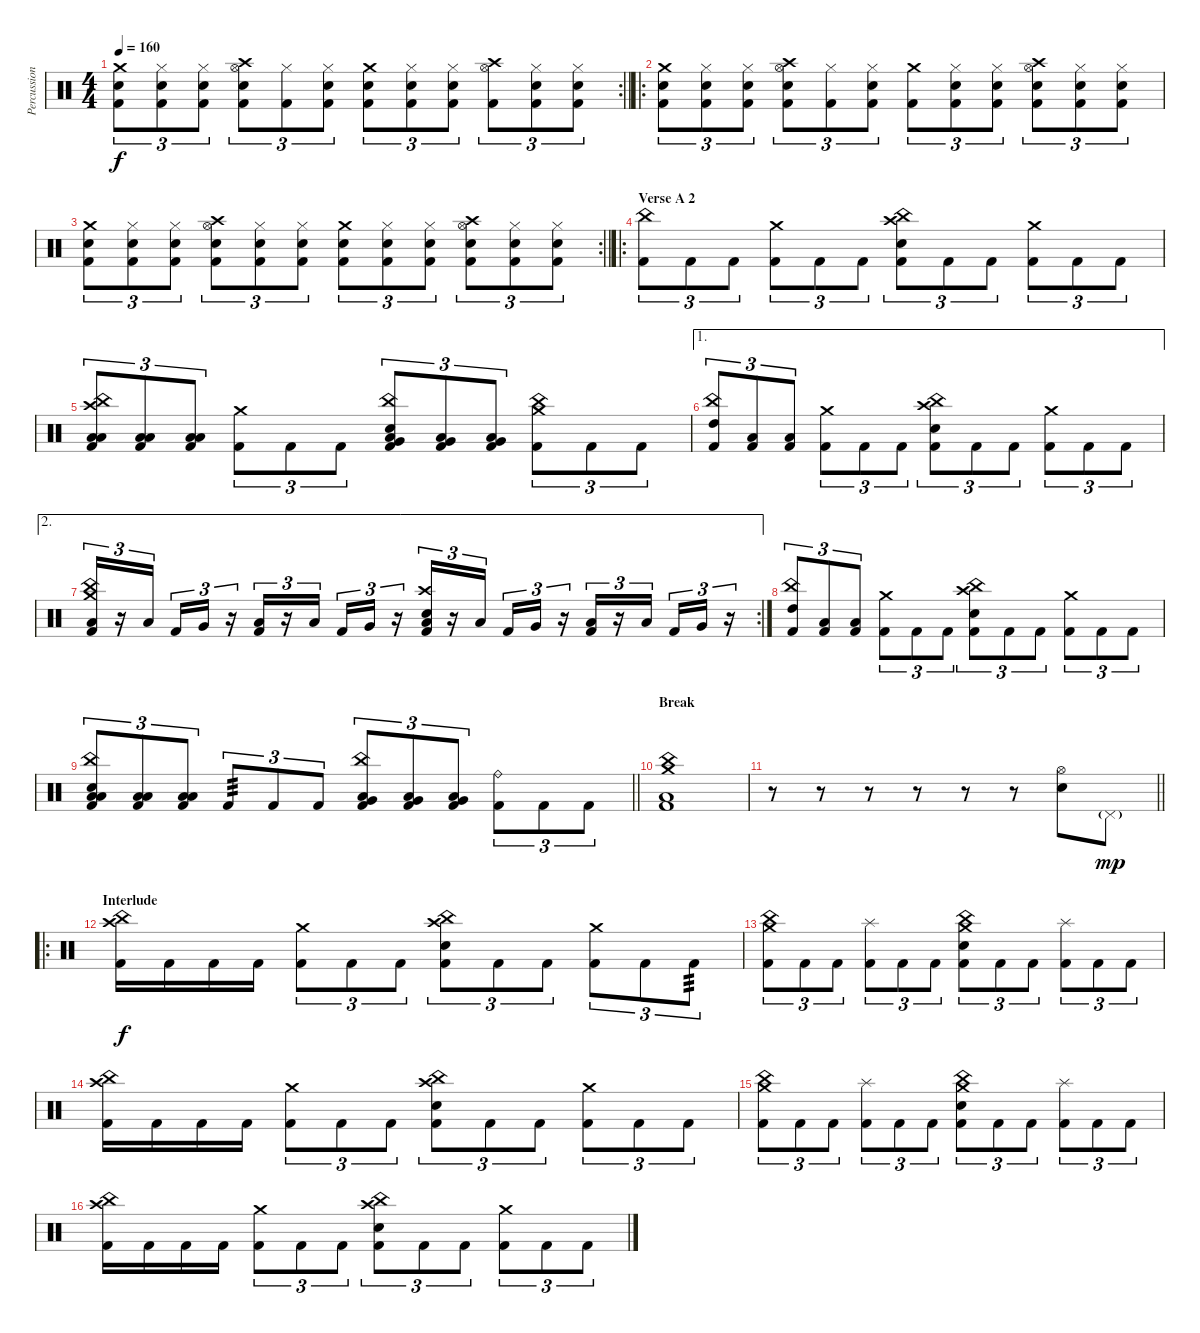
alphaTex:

\track ("Percussion" "Percussion") {instrument percussion}
\staff {score}
\articulation defaults
\rc 2
\ts (4 4)
\tempo 160
\clef neutral
\barLineRight lightlight
\ks c
("Kick (hit) 2" "Crash medium (hit)" "Electric Snare (hit)").8{tu (3 2) dy f} ("Kick (hit) 2" "Hi-Hat (closed)" "Electric Snare (hit)").8{tu (3 2)} ("Kick (hit) 2" "Hi-Hat (closed)" "Electric Snare (hit)").8{tu (3 2)} ("Kick (hit) 2" "Crash high (hit)" "Hi-Hat (open)" "Electric Snare (hit)").8{tu (3 2)} ("Kick (hit) 2" "Hi-Hat (closed)").8{tu (3 2)} ("Kick (hit) 2" "Hi-Hat (closed)" "Electric Snare (hit)").8{tu (3 2)} ("Kick (hit) 2" "Crash medium (hit)" "Electric Snare (hit)").8{tu (3 2)} ("Kick (hit) 2" "Hi-Hat (closed)" "Electric Snare (hit)").8{tu (3 2)} ("Kick (hit) 2" "Hi-Hat (closed)" "Electric Snare (hit)").8{tu (3 2)} ("Kick (hit) 2" "Crash high (hit)" "Hi-Hat (open)").8{tu (3 2)} ("Kick (hit) 2" "Hi-Hat (closed)" "Electric Snare (hit)").8{tu (3 2)} ("Kick (hit) 2" "Hi-Hat (closed)" "Electric Snare (hit)").8{tu (3 2)} |
\ro
("Kick (hit) 2" "Crash medium (hit)" "Electric Snare (hit)").8{tu (3 2)} ("Kick (hit) 2" "Hi-Hat (closed)" "Electric Snare (hit)").8{tu (3 2)} ("Kick (hit) 2" "Hi-Hat (closed)" "Electric Snare (hit)").8{tu (3 2)} ("Kick (hit) 2" "Crash high (hit)" "Hi-Hat (open)" "Electric Snare (hit)").8{tu (3 2)} ("Kick (hit) 2" "Hi-Hat (closed)").8{tu (3 2)} ("Kick (hit) 2" "Hi-Hat (closed)" "Electric Snare (hit)").8{tu (3 2)} ("Kick (hit) 2" "Crash medium (hit)").8{tu (3 2)} ("Kick (hit) 2" "Hi-Hat (closed)" "Electric Snare (hit)").8{tu (3 2)} ("Kick (hit) 2" "Hi-Hat (closed)" "Electric Snare (hit)").8{tu (3 2)} ("Kick (hit) 2" "Crash high (hit)" "Hi-Hat (open)" "Electric Snare (hit)").8{tu (3 2)} ("Kick (hit) 2" "Hi-Hat (closed)" "Electric Snare (hit)").8{tu (3 2)} ("Kick (hit) 2" "Hi-Hat (closed)" "Electric Snare (hit)").8{tu (3 2)} |
\rc 2
\barLineRight lightlight
("Kick (hit) 2" "Crash medium (hit)" "Electric Snare (hit)").8{tu (3 2)} ("Kick (hit) 2" "Hi-Hat (closed)" "Electric Snare (hit)").8{tu (3 2)} ("Kick (hit) 2" "Hi-Hat (closed)" "Electric Snare (hit)").8{tu (3 2)} ("Kick (hit) 2" "Crash high (hit)" "Hi-Hat (open)" "Electric Snare (hit)").8{tu (3 2)} ("Kick (hit) 2" "Hi-Hat (closed)" "Electric Snare (hit)").8{tu (3 2)} ("Kick (hit) 2" "Hi-Hat (closed)" "Electric Snare (hit)").8{tu (3 2)} ("Kick (hit) 2" "Crash medium (hit)" "Electric Snare (hit)").8{tu (3 2)} ("Kick (hit) 2" "Hi-Hat (closed)" "Electric Snare (hit)").8{tu (3 2)} ("Kick (hit) 2" "Hi-Hat (closed)" "Electric Snare (hit)").8{tu (3 2)} ("Kick (hit) 2" "Crash high (hit)" "Hi-Hat (open)" "Electric Snare (hit)").8{tu (3 2)} ("Kick (hit) 2" "Hi-Hat (closed)" "Electric Snare (hit)").8{tu (3 2)} ("Kick (hit) 2" "Hi-Hat (closed)" "Electric Snare (hit)").8{tu (3 2)} |
\ro
\section ("" "Verse A 2")
("China (hit)" "Kick (hit) 2").8{tu (3 2)} "Kick (hit) 2".8{tu (3 2)} "Kick (hit) 2".8{tu (3 2)} ("Crash medium (hit)" "Kick (hit) 2").8{tu (3 2)} "Kick (hit) 2".8{tu (3 2)} "Kick (hit) 2".8{tu (3 2)} ("China (hit)" "Crash high (hit)" "Electric Snare (hit)" "Kick (hit) 2").8{tu (3 2)} "Kick (hit) 2".8{tu (3 2)} "Kick (hit) 2".8{tu (3 2)} ("Crash medium (hit)" "Kick (hit) 2").8{tu (3 2)} "Kick (hit) 2".8{tu (3 2)} "Kick (hit) 2".8{tu (3 2)} |
("China (hit)" "Crash high (hit)" "Low Tom (hit)" "Low Floor Tom (hit)" "Kick (hit) 2").8{tu (3 2)} ("Low Tom (hit)" "Low Floor Tom (hit)" "Kick (hit) 2").8{tu (3 2)} ("Low Tom (hit)" "Low Floor Tom (hit)" "Kick (hit) 2").8{tu (3 2)} ("Crash medium (hit)" "Kick (hit) 2").8{tu (3 2)} "Kick (hit) 2".8{tu (3 2)} "Kick (hit) 2".8{tu (3 2)} ("Electric Snare (hit)" "China (hit)" "Very Low Tom (hit)" "Low Floor Tom (hit)" "Kick (hit) 2").8{tu (3 2)} ("Very Low Tom (hit)" "Low Floor Tom (hit)" "Kick (hit) 2").8{tu (3 2)} ("Very Low Tom (hit)" "Low Floor Tom (hit)" "Kick (hit) 2").8{tu (3 2)} ("Crash medium (hit)" "China (hit)" "Kick (hit) 2").8{tu (3 2)} "Kick (hit) 2".8{tu (3 2)} "Kick (hit) 2".8{tu (3 2)} |
\ae 1
("China (hit)" "High Tom (hit)" "Kick (hit) 2").8{tu (3 2)} ("Low Tom (hit)" "Kick (hit) 2").8{tu (3 2)} ("Low Floor Tom (hit)" "Kick (hit) 2").8{tu (3 2)} ("Crash medium (hit)" "Kick (hit) 2").8{tu (3 2)} "Kick (hit) 2".8{tu (3 2)} "Kick (hit) 2".8{tu (3 2)} ("China (hit)" "Crash high (hit)" "Electric Snare (hit)" "Kick (hit) 2").8{tu (3 2)} "Kick (hit) 2".8{tu (3 2)} "Kick (hit) 2".8{tu (3 2)} ("Crash medium (hit)" "Kick (hit) 2").8{tu (3 2)} "Kick (hit) 2".8{tu (3 2)} "Kick (hit) 2".8{tu (3 2)} |
\ae 2
\rc 2
("Kick (hit) 2" "Low Floor Tom (hit)" "Crash medium (hit)" "China (hit)").16{tu (3 2)} r.16{tu (3 2)} "Low Tom (hit)".16{tu (3 2) beam splitsecondary} "Kick (hit) 2".16{tu (3 2)} "Very Low Tom (hit)".16{tu (3 2)} r.16{tu (3 2)} ("Kick (hit) 2" "Low Floor Tom (hit)").16{tu (3 2)} r.16{tu (3 2)} "Low Tom (hit)".16{tu (3 2) beam splitsecondary} "Kick (hit) 2".16{tu (3 2)} "Very Low Tom (hit)".16{tu (3 2)} r.16{tu (3 2)} ("Kick (hit) 2" "Low Floor Tom (hit)" "Electric Snare (hit)" "Crash high (hit)").16{tu (3 2)} r.16{tu (3 2)} "Low Tom (hit)".16{tu (3 2) beam splitsecondary} "Kick (hit) 2".16{tu (3 2)} "Very Low Tom (hit)".16{tu (3 2)} r.16{tu (3 2)} ("Kick (hit) 2" "Low Floor Tom (hit)").16{tu (3 2)} r.16{tu (3 2)} "Low Tom (hit)".16{tu (3 2) beam splitsecondary} "Kick (hit) 2".16{tu (3 2)} "Very Low Tom (hit)".16{tu (3 2)} r.16{tu (3 2)} |
("China (hit)" "High Tom (hit)" "Kick (hit) 2").8{tu (3 2)} ("Low Tom (hit)" "Kick (hit) 2").8{tu (3 2)} ("Low Floor Tom (hit)" "Kick (hit) 2").8{tu (3 2)} ("Crash medium (hit)" "Kick (hit) 2").8{tu (3 2)} "Kick (hit) 2".8{tu (3 2)} "Kick (hit) 2".8{tu (3 2)} ("China (hit)" "Crash high (hit)" "Electric Snare (hit)" "Kick (hit) 2").8{tu (3 2)} "Kick (hit) 2".8{tu (3 2)} "Kick (hit) 2".8{tu (3 2)} ("Crash medium (hit)" "Kick (hit) 2").8{tu (3 2)} "Kick (hit) 2".8{tu (3 2)} "Kick (hit) 2".8{tu (3 2)} |
\barLineRight lightlight
("China (hit)" "Electric Snare (hit)" "Low Tom (hit)" "Low Floor Tom (hit)" "Kick (hit) 2").8{tu (3 2)} ("Low Tom (hit)" "Low Floor Tom (hit)" "Kick (hit) 2").8{tu (3 2)} ("Low Tom (hit)" "Low Floor Tom (hit)" "Kick (hit) 2").8{tu (3 2)} "Kick (hit) 2".8{tu (3 2) tp 3} "Kick (hit) 2".8{tu (3 2)} "Kick (hit) 2".8{tu (3 2)} ("China (hit)" "Very Low Tom (hit)" "Low Floor Tom (hit)" "Kick (hit) 2").8{tu (3 2)} ("Very Low Tom (hit)" "Low Floor Tom (hit)" "Kick (hit) 2").8{tu (3 2)} ("Very Low Tom (hit)" "Low Floor Tom (hit)" "Kick (hit) 2").8{tu (3 2)} ("Ride (bell)" "Kick (hit) 2").8{tu (3 2)} "Kick (hit) 2".8{tu (3 2)} "Kick (hit) 2".8{tu (3 2)} |
\section ("" "Break")
("Crash medium (hit)" "Low Floor Tom (hit)" "Kick (hit) 2" "China (hit)").1 |
\barLineRight lightlight
r.8 r.8 r.8 r.8 r.8 r.8 ("Electric Snare (hit)" "Hi-Hat (open)").8 "Pedal Hi-Hat (hit)"{g}.8{dy mp} |
\ro
\section ("" "Interlude")
("China (hit)" "Crash high (hit)" "Kick (hit) 2").16{dy f} "Kick (hit) 2".16 "Kick (hit) 2".16 "Kick (hit) 2".16 ("Crash medium (hit)" "Kick (hit) 2").8{tu (3 2)} "Kick (hit) 2".8{tu (3 2)} "Kick (hit) 2".8{tu (3 2)} ("Crash high (hit)" "China (hit)" "Electric Snare (hit)" "Kick (hit) 2").8{tu (3 2)} "Kick (hit) 2".8{tu (3 2)} "Kick (hit) 2".8{tu (3 2)} ("Crash medium (hit)" "Kick (hit) 2").8{tu (3 2)} "Kick (hit) 2".8{tu (3 2)} "Kick (hit) 2".8{tu (3 2) tp 3} |
("Crash medium (hit)" "China (hit)" "Kick (hit) 2").8{tu (3 2)} "Kick (hit) 2".8{tu (3 2)} "Kick (hit) 2".8{tu (3 2)} ("Splash (hit)" "Kick (hit) 2").8{tu (3 2)} "Kick (hit) 2".8{tu (3 2)} "Kick (hit) 2".8{tu (3 2)} ("Crash medium (hit)" "Electric Snare (hit)" "China (hit)" "Kick (hit) 2").8{tu (3 2)} "Kick (hit) 2".8{tu (3 2)} "Kick (hit) 2".8{tu (3 2)} ("Splash (hit)" "Kick (hit) 2").8{tu (3 2)} "Kick (hit) 2".8{tu (3 2)} "Kick (hit) 2".8{tu (3 2)} |
("China (hit)" "Crash high (hit)" "Kick (hit) 2").16 "Kick (hit) 2".16 "Kick (hit) 2".16 "Kick (hit) 2".16 ("Crash medium (hit)" "Kick (hit) 2").8{tu (3 2)} "Kick (hit) 2".8{tu (3 2)} "Kick (hit) 2".8{tu (3 2)} ("Crash high (hit)" "China (hit)" "Electric Snare (hit)" "Kick (hit) 2").8{tu (3 2)} "Kick (hit) 2".8{tu (3 2)} "Kick (hit) 2".8{tu (3 2)} ("Crash medium (hit)" "Kick (hit) 2").8{tu (3 2)} "Kick (hit) 2".8{tu (3 2)} "Kick (hit) 2".8{tu (3 2)} |
("Crash medium (hit)" "China (hit)" "Kick (hit) 2").8{tu (3 2)} "Kick (hit) 2".8{tu (3 2)} "Kick (hit) 2".8{tu (3 2)} ("Splash (hit)" "Kick (hit) 2").8{tu (3 2)} "Kick (hit) 2".8{tu (3 2)} "Kick (hit) 2".8{tu (3 2)} ("Crash medium (hit)" "Electric Snare (hit)" "China (hit)" "Kick (hit) 2").8{tu (3 2)} "Kick (hit) 2".8{tu (3 2)} "Kick (hit) 2".8{tu (3 2)} ("Splash (hit)" "Kick (hit) 2").8{tu (3 2)} "Kick (hit) 2".8{tu (3 2)} "Kick (hit) 2".8{tu (3 2)} |
("China (hit)" "Crash high (hit)" "Kick (hit) 2").16 "Kick (hit) 2".16 "Kick (hit) 2".16 "Kick (hit) 2".16 ("Crash medium (hit)" "Kick (hit) 2").8{tu (3 2)} "Kick (hit) 2".8{tu (3 2)} "Kick (hit) 2".8{tu (3 2)} ("Crash high (hit)" "China (hit)" "Electric Snare (hit)" "Kick (hit) 2").8{tu (3 2)} "Kick (hit) 2".8{tu (3 2)} "Kick (hit) 2".8{tu (3 2)} ("Crash medium (hit)" "Kick (hit) 2").8{tu (3 2)} "Kick (hit) 2".8{tu (3 2)} "Kick (hit) 2".8{tu (3 2)}
